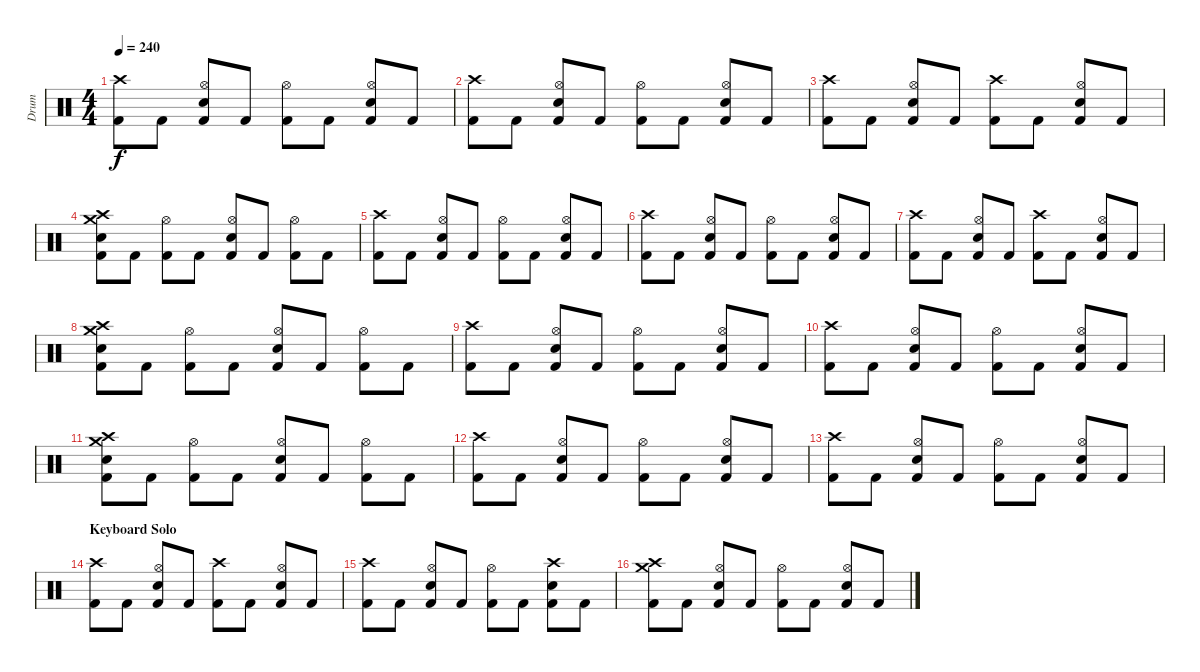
\track ("Drum" "Drum") {instrument percussion}
\staff {score}
\articulation defaults
\ts (4 4)
\tempo 240
\clef neutral
\ks c
("Crash high (hit)" "Kick (hit) 2").8{dy f} "Kick (hit) 2".8 ("Hi-Hat (open)" "Kick (hit) 2" "Electric Snare (hit)").8 "Kick (hit) 2".8 ("Hi-Hat (open)" "Kick (hit) 2").8 "Kick (hit) 2".8 ("Hi-Hat (open)" "Kick (hit) 2" "Electric Snare (hit)").8 "Kick (hit) 2".8 |
("Crash high (hit)" "Kick (hit) 2").8 "Kick (hit) 2".8 ("Hi-Hat (open)" "Kick (hit) 2" "Electric Snare (hit)").8 "Kick (hit) 2".8 ("Hi-Hat (open)" "Kick (hit) 2").8 "Kick (hit) 2".8 ("Hi-Hat (open)" "Kick (hit) 2" "Electric Snare (hit)").8 "Kick (hit) 2".8 |
("Crash high (hit)" "Kick (hit) 2").8 "Kick (hit) 2".8 ("Hi-Hat (open)" "Kick (hit) 2" "Electric Snare (hit)").8 "Kick (hit) 2".8 ("Crash high (hit)" "Kick (hit) 2").8 "Kick (hit) 2".8 ("Hi-Hat (open)" "Kick (hit) 2" "Electric Snare (hit)").8 "Kick (hit) 2".8 |
("Crash high (hit)" "Kick (hit) 2" "Crash medium (hit)" "Electric Snare (hit)").8 "Kick (hit) 2".8 ("Hi-Hat (open)" "Kick (hit) 2").8 "Kick (hit) 2".8 ("Hi-Hat (open)" "Kick (hit) 2" "Electric Snare (hit)").8 "Kick (hit) 2".8 ("Hi-Hat (open)" "Kick (hit) 2").8 "Kick (hit) 2".8 |
("Crash high (hit)" "Kick (hit) 2").8 "Kick (hit) 2".8 ("Hi-Hat (open)" "Kick (hit) 2" "Electric Snare (hit)").8 "Kick (hit) 2".8 ("Hi-Hat (open)" "Kick (hit) 2").8 "Kick (hit) 2".8 ("Hi-Hat (open)" "Kick (hit) 2" "Electric Snare (hit)").8 "Kick (hit) 2".8 |
("Crash high (hit)" "Kick (hit) 2").8 "Kick (hit) 2".8 ("Hi-Hat (open)" "Kick (hit) 2" "Electric Snare (hit)").8 "Kick (hit) 2".8 ("Hi-Hat (open)" "Kick (hit) 2").8 "Kick (hit) 2".8 ("Hi-Hat (open)" "Kick (hit) 2" "Electric Snare (hit)").8 "Kick (hit) 2".8 |
("Crash high (hit)" "Kick (hit) 2").8 "Kick (hit) 2".8 ("Hi-Hat (open)" "Kick (hit) 2" "Electric Snare (hit)").8 "Kick (hit) 2".8 ("Crash high (hit)" "Kick (hit) 2").8 "Kick (hit) 2".8 ("Hi-Hat (open)" "Kick (hit) 2" "Electric Snare (hit)").8 "Kick (hit) 2".8 |
("Crash high (hit)" "Kick (hit) 2" "Crash medium (hit)" "Electric Snare (hit)").8 "Kick (hit) 2".8 ("Hi-Hat (open)" "Kick (hit) 2").8 "Kick (hit) 2".8 ("Hi-Hat (open)" "Kick (hit) 2" "Electric Snare (hit)").8 "Kick (hit) 2".8 ("Hi-Hat (open)" "Kick (hit) 2").8 "Kick (hit) 2".8 |
("Crash high (hit)" "Kick (hit) 2").8 "Kick (hit) 2".8 ("Hi-Hat (open)" "Kick (hit) 2" "Electric Snare (hit)").8 "Kick (hit) 2".8 ("Hi-Hat (open)" "Kick (hit) 2").8 "Kick (hit) 2".8 ("Hi-Hat (open)" "Kick (hit) 2" "Electric Snare (hit)").8 "Kick (hit) 2".8 |
("Crash high (hit)" "Kick (hit) 2").8 "Kick (hit) 2".8 ("Hi-Hat (open)" "Kick (hit) 2" "Electric Snare (hit)").8 "Kick (hit) 2".8 ("Hi-Hat (open)" "Kick (hit) 2").8 "Kick (hit) 2".8 ("Hi-Hat (open)" "Kick (hit) 2" "Electric Snare (hit)").8 "Kick (hit) 2".8 |
("Crash high (hit)" "Kick (hit) 2" "Crash medium (hit)" "Electric Snare (hit)").8 "Kick (hit) 2".8 ("Hi-Hat (open)" "Kick (hit) 2").8 "Kick (hit) 2".8 ("Hi-Hat (open)" "Kick (hit) 2" "Electric Snare (hit)").8 "Kick (hit) 2".8 ("Hi-Hat (open)" "Kick (hit) 2").8 "Kick (hit) 2".8 |
("Crash high (hit)" "Kick (hit) 2").8 "Kick (hit) 2".8 ("Hi-Hat (open)" "Kick (hit) 2" "Electric Snare (hit)").8 "Kick (hit) 2".8 ("Hi-Hat (open)" "Kick (hit) 2").8 "Kick (hit) 2".8 ("Hi-Hat (open)" "Kick (hit) 2" "Electric Snare (hit)").8 "Kick (hit) 2".8 |
("Crash high (hit)" "Kick (hit) 2").8 "Kick (hit) 2".8 ("Hi-Hat (open)" "Kick (hit) 2" "Electric Snare (hit)").8 "Kick (hit) 2".8 ("Hi-Hat (open)" "Kick (hit) 2").8 "Kick (hit) 2".8 ("Hi-Hat (open)" "Kick (hit) 2" "Electric Snare (hit)").8 "Kick (hit) 2".8 |
\section ("" "Keyboard Solo")
("Crash high (hit)" "Kick (hit) 2").8 "Kick (hit) 2".8 ("Hi-Hat (open)" "Kick (hit) 2" "Electric Snare (hit)").8 "Kick (hit) 2".8 ("Crash high (hit)" "Kick (hit) 2").8 "Kick (hit) 2".8 ("Hi-Hat (open)" "Kick (hit) 2" "Electric Snare (hit)").8 "Kick (hit) 2".8 |
("Crash high (hit)" "Kick (hit) 2").8 "Kick (hit) 2".8 ("Hi-Hat (open)" "Kick (hit) 2" "Electric Snare (hit)").8 "Kick (hit) 2".8 ("Hi-Hat (open)" "Kick (hit) 2").8 "Kick (hit) 2".8 ("Crash high (hit)" "Kick (hit) 2" "Electric Snare (hit)").8 "Kick (hit) 2".8 |
("Crash high (hit)" "Kick (hit) 2" "Crash medium (hit)").8 "Kick (hit) 2".8 ("Hi-Hat (open)" "Kick (hit) 2" "Electric Snare (hit)").8 "Kick (hit) 2".8 ("Hi-Hat (open)" "Kick (hit) 2").8 "Kick (hit) 2".8 ("Hi-Hat (open)" "Kick (hit) 2" "Electric Snare (hit)").8 "Kick (hit) 2".8
